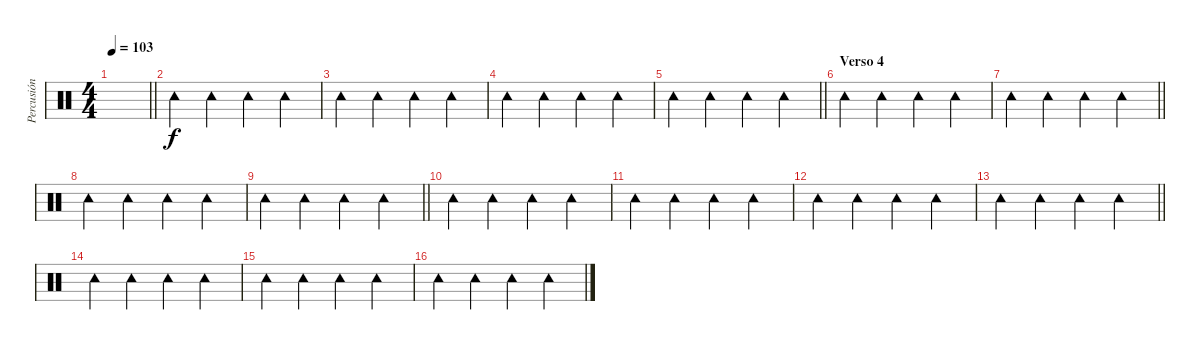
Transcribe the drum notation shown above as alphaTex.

\track ("Percusión" "Percusión") {instrument percussion}
\staff {score}
\articulation defaults
\ts (4 4)
\tempo 103
\clef neutral
\barLineRight lightlight
\ks c
|
\section ("" "")
"Tambourine (hit)".4 "Tambourine (hit)".4 "Tambourine (hit)".4 "Tambourine (hit)".4 |
"Tambourine (hit)".4 "Tambourine (hit)".4 "Tambourine (hit)".4 "Tambourine (hit)".4 |
"Tambourine (hit)".4 "Tambourine (hit)".4 "Tambourine (hit)".4 "Tambourine (hit)".4 |
\barLineRight lightlight "Tambourine (hit)".4 "Tambourine (hit)".4 "Tambourine (hit)".4 "Tambourine (hit)".4
|
\section ("" "Verso 4")
"Tambourine (hit)".4 "Tambourine (hit)".4 "Tambourine (hit)".4 "Tambourine (hit)".4 |
\barLineRight lightlight "Tambourine (hit)".4 "Tambourine (hit)".4 "Tambourine (hit)".4 "Tambourine (hit)".4
|
"Tambourine (hit)".4 "Tambourine (hit)".4 "Tambourine (hit)".4 "Tambourine (hit)".4 |
\barLineRight lightlight "Tambourine (hit)".4 "Tambourine (hit)".4 "Tambourine (hit)".4 "Tambourine (hit)".4
|
"Tambourine (hit)".4 "Tambourine (hit)".4 "Tambourine (hit)".4 "Tambourine (hit)".4 |
"Tambourine (hit)".4 "Tambourine (hit)".4 "Tambourine (hit)".4 "Tambourine (hit)".4 |
"Tambourine (hit)".4 "Tambourine (hit)".4 "Tambourine (hit)".4 "Tambourine (hit)".4 |
\barLineRight lightlight "Tambourine (hit)".4 "Tambourine (hit)".4 "Tambourine (hit)".4 "Tambourine (hit)".4
|
\section ("" "")
"Tambourine (hit)".4 "Tambourine (hit)".4 "Tambourine (hit)".4 "Tambourine (hit)".4 |
"Tambourine (hit)".4 "Tambourine (hit)".4 "Tambourine (hit)".4 "Tambourine (hit)".4 |
"Tambourine (hit)".4 "Tambourine (hit)".4 "Tambourine (hit)".4 "Tambourine (hit)".4
